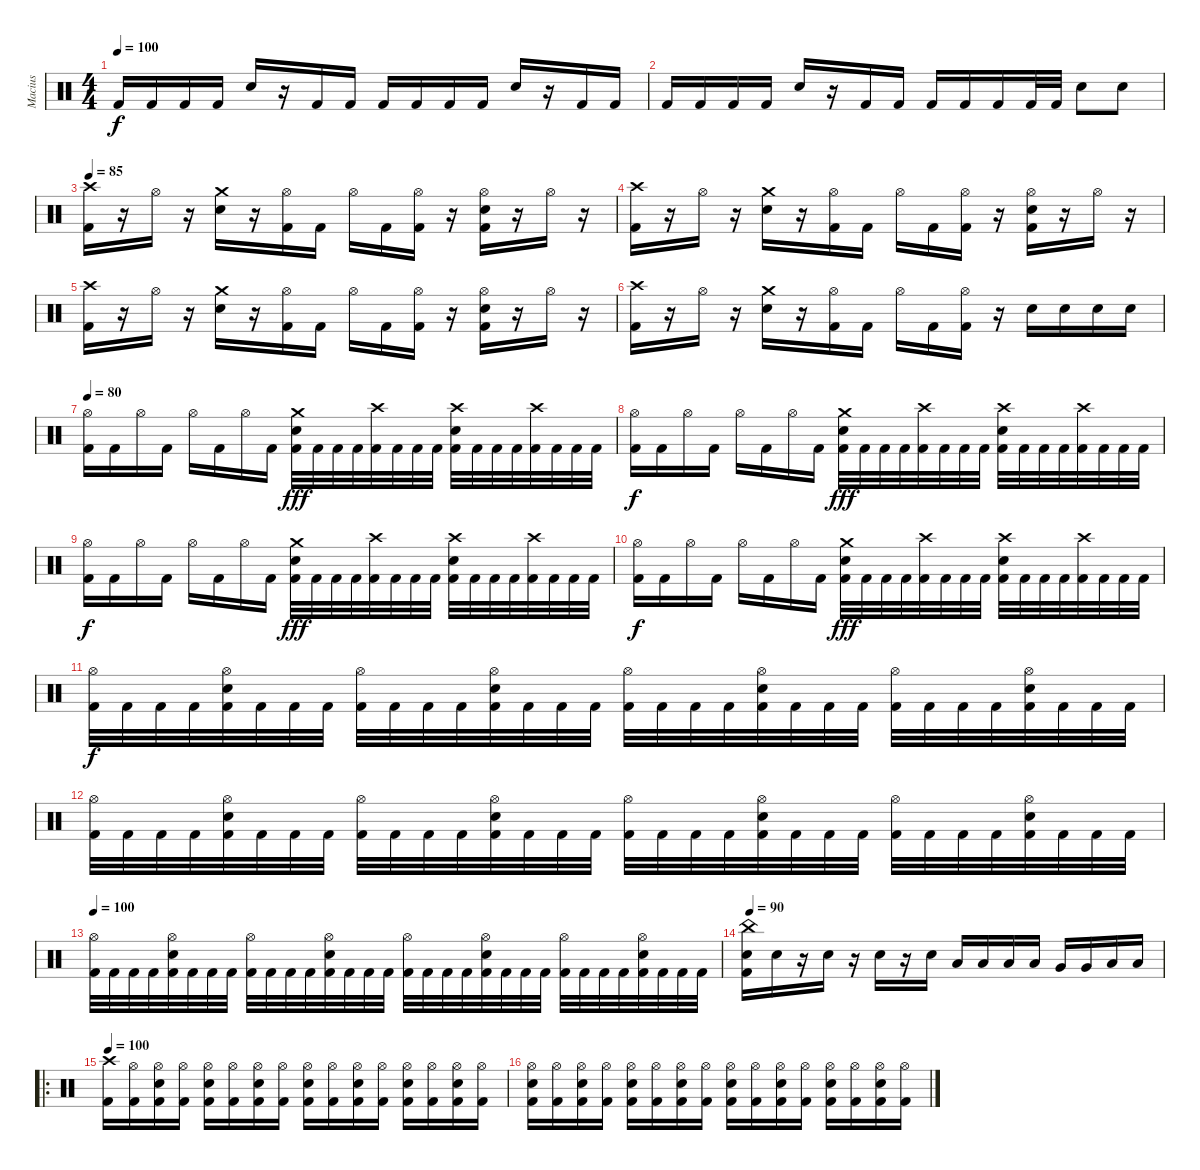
\track ("Macius" "Macius") {instrument percussion}
\staff {score}
\articulation defaults
\ts (4 4)
\tempo 100
\clef neutral
\ks c "Kick (hit) 2".16{dy f} "Kick (hit) 2".16 "Kick (hit) 2".16 "Kick (hit) 2".16 "Electric Snare (hit)".16
r.16 "Kick (hit) 2".16 "Kick (hit) 2".16 "Kick (hit) 2".16 "Kick (hit) 2".16 "Kick (hit) 2".16 "Kick (hit) 2".16 "Electric Snare (hit)".16 r.16 "Kick (hit) 2".16 "Kick (hit) 2".16 |
"Kick (hit) 2".16 "Kick (hit) 2".16 "Kick (hit) 2".16 "Kick (hit) 2".16 "Electric Snare (hit)".16 r.16 "Kick (hit) 2".16 "Kick (hit) 2".16 "Kick (hit) 2".16 "Kick (hit) 2".16 "Kick (hit) 2".16 "Kick (hit) 2".32 "Kick (hit) 2".32 "Electric Snare (hit)".8 "Electric Snare (hit)".8 |
\tempo 85
("Crash high (hit)" "Kick (hit) 2").16 r.16 "Hi-Hat (open)".16 r.16 ("Crash medium (hit)" "Electric Snare (hit)").16 r.16 ("Hi-Hat (open)" "Kick (hit) 2").16 "Kick (hit) 2".16 "Hi-Hat (open)".16 "Kick (hit) 2".16 ("Hi-Hat (open)" "Kick (hit) 2").16 r.16 ("Hi-Hat (open)" "Electric Snare (hit)" "Kick (hit) 2").16 r.16 "Hi-Hat (open)".16 r.16 |
("Crash high (hit)" "Kick (hit) 2").16 r.16 "Hi-Hat (open)".16 r.16 ("Crash medium (hit)" "Electric Snare (hit)").16 r.16 ("Hi-Hat (open)" "Kick (hit) 2").16 "Kick (hit) 2".16 "Hi-Hat (open)".16 "Kick (hit) 2".16 ("Hi-Hat (open)" "Kick (hit) 2").16 r.16 ("Hi-Hat (open)" "Electric Snare (hit)" "Kick (hit) 2").16 r.16 "Hi-Hat (open)".16 r.16 |
("Crash high (hit)" "Kick (hit) 2").16 r.16 "Hi-Hat (open)".16 r.16 ("Crash medium (hit)" "Electric Snare (hit)").16 r.16 ("Hi-Hat (open)" "Kick (hit) 2").16 "Kick (hit) 2".16 "Hi-Hat (open)".16 "Kick (hit) 2".16 ("Hi-Hat (open)" "Kick (hit) 2").16 r.16 ("Hi-Hat (open)" "Electric Snare (hit)" "Kick (hit) 2").16 r.16 "Hi-Hat (open)".16 r.16 |
("Crash high (hit)" "Kick (hit) 2").16 r.16 "Hi-Hat (open)".16 r.16 ("Crash medium (hit)" "Electric Snare (hit)").16 r.16 ("Hi-Hat (open)" "Kick (hit) 2").16 "Kick (hit) 2".16 "Hi-Hat (open)".16 "Kick (hit) 2".16 ("Hi-Hat (open)" "Kick (hit) 2").16 r.16 "Electric Snare (hit)".16 "Electric Snare (hit)".16 "Electric Snare (hit)".16 "Electric Snare (hit)".16 |
\tempo 80
("Hi-Hat (open)" "Kick (hit) 2").16 "Kick (hit) 2".16 "Hi-Hat (open)".16 "Kick (hit) 2".16 "Hi-Hat (open)".16 "Kick (hit) 2".16 "Hi-Hat (open)".16 "Kick (hit) 2".16 ("Crash medium (hit)" "Electric Snare (hit)" "Kick (hit) 2").32{dy fff} "Kick (hit) 2".32 "Kick (hit) 2".32 "Kick (hit) 2".32 ("Crash high (hit)" "Kick (hit) 2").32 "Kick (hit) 2".32 "Kick (hit) 2".32 "Kick (hit) 2".32 ("Crash high (hit)" "Electric Snare (hit)" "Kick (hit) 2").32 "Kick (hit) 2".32 "Kick (hit) 2".32 "Kick (hit) 2".32 ("Crash high (hit)" "Kick (hit) 2").32 "Kick (hit) 2".32 "Kick (hit) 2".32 "Kick (hit) 2".32 |
("Hi-Hat (open)" "Kick (hit) 2").16{dy f} "Kick (hit) 2".16 "Hi-Hat (open)".16 "Kick (hit) 2".16 "Hi-Hat (open)".16 "Kick (hit) 2".16 "Hi-Hat (open)".16 "Kick (hit) 2".16 ("Crash medium (hit)" "Electric Snare (hit)" "Kick (hit) 2").32{dy fff} "Kick (hit) 2".32 "Kick (hit) 2".32 "Kick (hit) 2".32 ("Crash high (hit)" "Kick (hit) 2").32 "Kick (hit) 2".32 "Kick (hit) 2".32 "Kick (hit) 2".32 ("Crash high (hit)" "Electric Snare (hit)" "Kick (hit) 2").32 "Kick (hit) 2".32 "Kick (hit) 2".32 "Kick (hit) 2".32 ("Crash high (hit)" "Kick (hit) 2").32 "Kick (hit) 2".32 "Kick (hit) 2".32 "Kick (hit) 2".32 |
("Hi-Hat (open)" "Kick (hit) 2").16{dy f} "Kick (hit) 2".16 "Hi-Hat (open)".16 "Kick (hit) 2".16 "Hi-Hat (open)".16 "Kick (hit) 2".16 "Hi-Hat (open)".16 "Kick (hit) 2".16 ("Crash medium (hit)" "Electric Snare (hit)" "Kick (hit) 2").32{dy fff} "Kick (hit) 2".32 "Kick (hit) 2".32 "Kick (hit) 2".32 ("Crash high (hit)" "Kick (hit) 2").32 "Kick (hit) 2".32 "Kick (hit) 2".32 "Kick (hit) 2".32 ("Crash high (hit)" "Electric Snare (hit)" "Kick (hit) 2").32 "Kick (hit) 2".32 "Kick (hit) 2".32 "Kick (hit) 2".32 ("Crash high (hit)" "Kick (hit) 2").32 "Kick (hit) 2".32 "Kick (hit) 2".32 "Kick (hit) 2".32 |
("Hi-Hat (open)" "Kick (hit) 2").16{dy f} "Kick (hit) 2".16 "Hi-Hat (open)".16 "Kick (hit) 2".16 "Hi-Hat (open)".16 "Kick (hit) 2".16 "Hi-Hat (open)".16 "Kick (hit) 2".16 ("Crash medium (hit)" "Electric Snare (hit)" "Kick (hit) 2").32{dy fff} "Kick (hit) 2".32 "Kick (hit) 2".32 "Kick (hit) 2".32 ("Crash high (hit)" "Kick (hit) 2").32 "Kick (hit) 2".32 "Kick (hit) 2".32 "Kick (hit) 2".32 ("Crash high (hit)" "Electric Snare (hit)" "Kick (hit) 2").32 "Kick (hit) 2".32 "Kick (hit) 2".32 "Kick (hit) 2".32 ("Crash high (hit)" "Kick (hit) 2").32 "Kick (hit) 2".32 "Kick (hit) 2".32 "Kick (hit) 2".32 |
("Hi-Hat (open)" "Kick (hit) 2").32{dy f} "Kick (hit) 2".32 "Kick (hit) 2".32 "Kick (hit) 2".32 ("Hi-Hat (open)" "Electric Snare (hit)" "Kick (hit) 2").32 "Kick (hit) 2".32 "Kick (hit) 2".32 "Kick (hit) 2".32 ("Hi-Hat (open)" "Kick (hit) 2").32 "Kick (hit) 2".32 "Kick (hit) 2".32 "Kick (hit) 2".32 ("Hi-Hat (open)" "Electric Snare (hit)" "Kick (hit) 2").32 "Kick (hit) 2".32 "Kick (hit) 2".32 "Kick (hit) 2".32 ("Hi-Hat (open)" "Kick (hit) 2").32 "Kick (hit) 2".32 "Kick (hit) 2".32 "Kick (hit) 2".32 ("Hi-Hat (open)" "Electric Snare (hit)" "Kick (hit) 2").32 "Kick (hit) 2".32 "Kick (hit) 2".32 "Kick (hit) 2".32 ("Hi-Hat (open)" "Kick (hit) 2").32 "Kick (hit) 2".32 "Kick (hit) 2".32 "Kick (hit) 2".32 ("Hi-Hat (open)" "Electric Snare (hit)" "Kick (hit) 2").32 "Kick (hit) 2".32 "Kick (hit) 2".32 "Kick (hit) 2".32 |
("Hi-Hat (open)" "Kick (hit) 2").32 "Kick (hit) 2".32 "Kick (hit) 2".32 "Kick (hit) 2".32 ("Hi-Hat (open)" "Electric Snare (hit)" "Kick (hit) 2").32 "Kick (hit) 2".32 "Kick (hit) 2".32 "Kick (hit) 2".32 ("Hi-Hat (open)" "Kick (hit) 2").32 "Kick (hit) 2".32 "Kick (hit) 2".32 "Kick (hit) 2".32 ("Hi-Hat (open)" "Electric Snare (hit)" "Kick (hit) 2").32 "Kick (hit) 2".32 "Kick (hit) 2".32 "Kick (hit) 2".32 ("Hi-Hat (open)" "Kick (hit) 2").32 "Kick (hit) 2".32 "Kick (hit) 2".32 "Kick (hit) 2".32 ("Hi-Hat (open)" "Electric Snare (hit)" "Kick (hit) 2").32 "Kick (hit) 2".32 "Kick (hit) 2".32 "Kick (hit) 2".32 ("Hi-Hat (open)" "Kick (hit) 2").32 "Kick (hit) 2".32 "Kick (hit) 2".32 "Kick (hit) 2".32 ("Hi-Hat (open)" "Electric Snare (hit)" "Kick (hit) 2").32 "Kick (hit) 2".32 "Kick (hit) 2".32 "Kick (hit) 2".32 |
\tempo 100
("Hi-Hat (open)" "Kick (hit) 2").32 "Kick (hit) 2".32 "Kick (hit) 2".32 "Kick (hit) 2".32 ("Hi-Hat (open)" "Electric Snare (hit)" "Kick (hit) 2").32 "Kick (hit) 2".32 "Kick (hit) 2".32 "Kick (hit) 2".32 ("Hi-Hat (open)" "Kick (hit) 2").32 "Kick (hit) 2".32 "Kick (hit) 2".32 "Kick (hit) 2".32 ("Hi-Hat (open)" "Electric Snare (hit)" "Kick (hit) 2").32 "Kick (hit) 2".32 "Kick (hit) 2".32 "Kick (hit) 2".32 ("Hi-Hat (open)" "Kick (hit) 2").32 "Kick (hit) 2".32 "Kick (hit) 2".32 "Kick (hit) 2".32 ("Hi-Hat (open)" "Electric Snare (hit)" "Kick (hit) 2").32 "Kick (hit) 2".32 "Kick (hit) 2".32 "Kick (hit) 2".32 ("Hi-Hat (open)" "Kick (hit) 2").32 "Kick (hit) 2".32 "Kick (hit) 2".32 "Kick (hit) 2".32 ("Hi-Hat (open)" "Electric Snare (hit)" "Kick (hit) 2").32 "Kick (hit) 2".32 "Kick (hit) 2".32 "Kick (hit) 2".32 |
\tempo 90
("China (hit)" "Electric Snare (hit)" "Kick (hit) 2").16 "Electric Snare (hit)".16 r.16 "Electric Snare (hit)".16 r.16 "Electric Snare (hit)".16 r.16 "Electric Snare (hit)".16 "Low Tom (hit)".16 "Low Tom (hit)".16 "Low Tom (hit)".16 "Low Tom (hit)".16 "Very Low Tom (hit)".16 "Very Low Tom (hit)".16 "Low Floor Tom (hit)".16 "Low Floor Tom (hit)".16 |
\ro
\tempo 100
("Crash high (hit)" "Kick (hit) 2").16 ("Hi-Hat (open)" "Kick (hit) 2").16 ("Hi-Hat (open)" "Electric Snare (hit)" "Kick (hit) 2").16 ("Hi-Hat (open)" "Kick (hit) 2").16 ("Hi-Hat (open)" "Electric Snare (hit)" "Kick (hit) 2").16 ("Hi-Hat (open)" "Kick (hit) 2").16 ("Hi-Hat (open)" "Electric Snare (hit)" "Kick (hit) 2").16 ("Hi-Hat (open)" "Kick (hit) 2").16 ("Hi-Hat (open)" "Electric Snare (hit)" "Kick (hit) 2").16 ("Hi-Hat (open)" "Kick (hit) 2").16 ("Hi-Hat (open)" "Electric Snare (hit)" "Kick (hit) 2").16 ("Hi-Hat (open)" "Kick (hit) 2").16 ("Hi-Hat (open)" "Electric Snare (hit)" "Kick (hit) 2").16 ("Hi-Hat (open)" "Kick (hit) 2").16 ("Hi-Hat (open)" "Electric Snare (hit)" "Kick (hit) 2").16 ("Hi-Hat (open)" "Kick (hit) 2").16 |
("Hi-Hat (open)" "Electric Snare (hit)" "Kick (hit) 2").16 ("Hi-Hat (open)" "Kick (hit) 2").16 ("Hi-Hat (open)" "Electric Snare (hit)" "Kick (hit) 2").16 ("Hi-Hat (open)" "Kick (hit) 2").16 ("Hi-Hat (open)" "Electric Snare (hit)" "Kick (hit) 2").16 ("Hi-Hat (open)" "Kick (hit) 2").16 ("Hi-Hat (open)" "Electric Snare (hit)" "Kick (hit) 2").16 ("Hi-Hat (open)" "Kick (hit) 2").16 ("Hi-Hat (open)" "Electric Snare (hit)" "Kick (hit) 2").16 ("Hi-Hat (open)" "Kick (hit) 2").16 ("Hi-Hat (open)" "Electric Snare (hit)" "Kick (hit) 2").16 ("Hi-Hat (open)" "Kick (hit) 2").16 ("Hi-Hat (open)" "Electric Snare (hit)" "Kick (hit) 2").16 ("Hi-Hat (open)" "Kick (hit) 2").16 ("Hi-Hat (open)" "Electric Snare (hit)" "Kick (hit) 2").16 ("Hi-Hat (open)" "Kick (hit) 2").16
